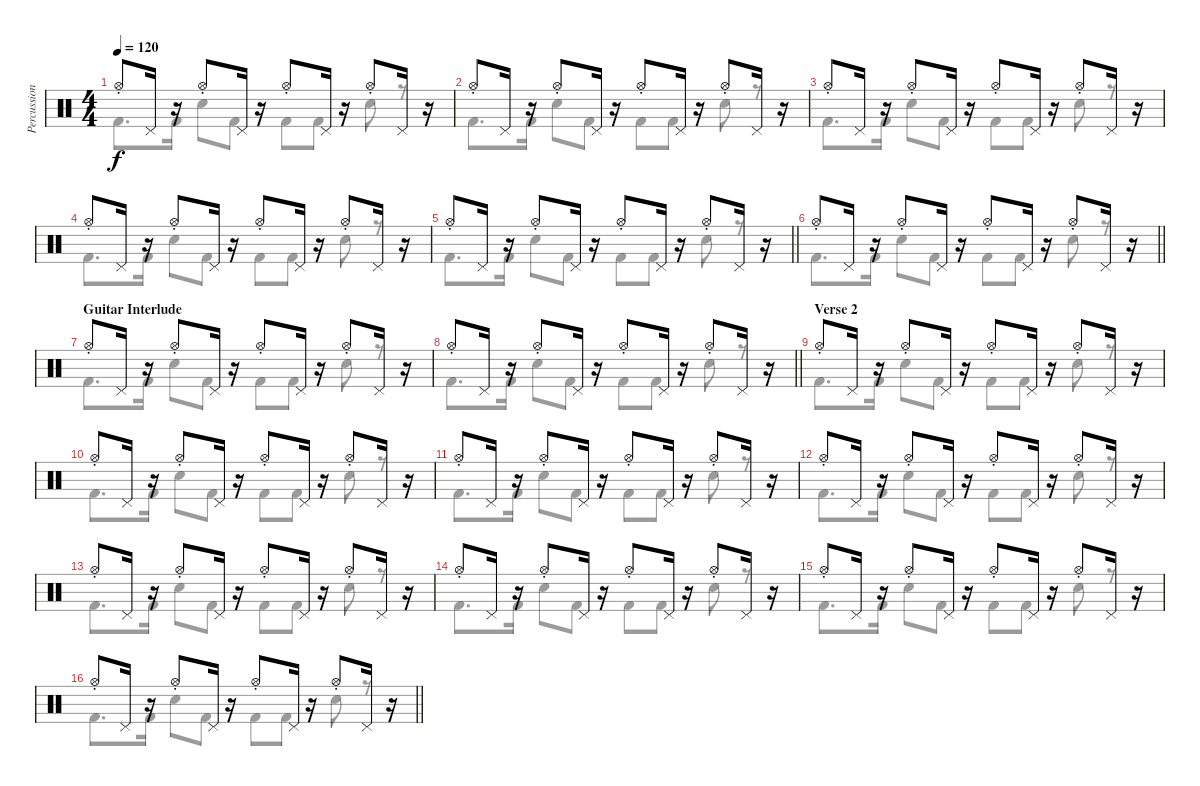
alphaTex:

\track ("Percussion" "Percussion") {instrument percussion}
\staff {score}
\articulation defaults
\voice
\ts (4 4)
\tempo 120
\clef neutral
\ks c "Hi-Hat (open)"{st}.8{dy f} "Pedal Hi-Hat (hit)".16
r.16 "Hi-Hat (open)"{st}.8 "Pedal Hi-Hat (hit)".16 r.16 "Hi-Hat (open)"{st}.8 "Pedal Hi-Hat (hit)".16 r.16 "Hi-Hat (open)"{st}.8 "Pedal Hi-Hat (hit)".16 r.16 |
"Hi-Hat (open)"{st}.8 "Pedal Hi-Hat (hit)".16 r.16 "Hi-Hat (open)"{st}.8 "Pedal Hi-Hat (hit)".16 r.16 "Hi-Hat (open)"{st}.8 "Pedal Hi-Hat (hit)".16 r.16 "Hi-Hat (open)"{st}.8 "Pedal Hi-Hat (hit)".16 r.16 |
"Hi-Hat (open)"{st}.8 "Pedal Hi-Hat (hit)".16 r.16 "Hi-Hat (open)"{st}.8 "Pedal Hi-Hat (hit)".16 r.16 "Hi-Hat (open)"{st}.8 "Pedal Hi-Hat (hit)".16 r.16 "Hi-Hat (open)"{st}.8 "Pedal Hi-Hat (hit)".16 r.16 |
"Hi-Hat (open)"{st}.8 "Pedal Hi-Hat (hit)".16 r.16 "Hi-Hat (open)"{st}.8 "Pedal Hi-Hat (hit)".16 r.16 "Hi-Hat (open)"{st}.8 "Pedal Hi-Hat (hit)".16 r.16 "Hi-Hat (open)"{st}.8 "Pedal Hi-Hat (hit)".16 r.16 |
\barLineRight lightlight "Hi-Hat (open)"{st}.8 "Pedal Hi-Hat (hit)".16
r.16 "Hi-Hat (open)"{st}.8 "Pedal Hi-Hat (hit)".16 r.16 "Hi-Hat (open)"{st}.8 "Pedal Hi-Hat (hit)".16 r.16 "Hi-Hat (open)"{st}.8 "Pedal Hi-Hat (hit)".16 r.16 |
\barLineRight lightlight "Hi-Hat (open)"{st}.8 "Pedal Hi-Hat (hit)".16
r.16 "Hi-Hat (open)"{st}.8 "Pedal Hi-Hat (hit)".16 r.16 "Hi-Hat (open)"{st}.8 "Pedal Hi-Hat (hit)".16 r.16 "Hi-Hat (open)"{st}.8 "Pedal Hi-Hat (hit)".16 r.16 |
\section ("" "Guitar Interlude")
"Hi-Hat (open)"{st}.8 "Pedal Hi-Hat (hit)".16 r.16 "Hi-Hat (open)"{st}.8 "Pedal Hi-Hat (hit)".16 r.16 "Hi-Hat (open)"{st}.8 "Pedal Hi-Hat (hit)".16 r.16 "Hi-Hat (open)"{st}.8 "Pedal Hi-Hat (hit)".16 r.16 |
\barLineRight lightlight "Hi-Hat (open)"{st}.8 "Pedal Hi-Hat (hit)".16
r.16 "Hi-Hat (open)"{st}.8 "Pedal Hi-Hat (hit)".16 r.16 "Hi-Hat (open)"{st}.8 "Pedal Hi-Hat (hit)".16 r.16 "Hi-Hat (open)"{st}.8 "Pedal Hi-Hat (hit)".16 r.16 |
\section ("" "Verse 2")
"Hi-Hat (open)"{st}.8 "Pedal Hi-Hat (hit)".16 r.16 "Hi-Hat (open)"{st}.8 "Pedal Hi-Hat (hit)".16 r.16 "Hi-Hat (open)"{st}.8 "Pedal Hi-Hat (hit)".16 r.16 "Hi-Hat (open)"{st}.8 "Pedal Hi-Hat (hit)".16 r.16 |
"Hi-Hat (open)"{st}.8 "Pedal Hi-Hat (hit)".16 r.16 "Hi-Hat (open)"{st}.8 "Pedal Hi-Hat (hit)".16 r.16 "Hi-Hat (open)"{st}.8 "Pedal Hi-Hat (hit)".16 r.16 "Hi-Hat (open)"{st}.8 "Pedal Hi-Hat (hit)".16 r.16 |
"Hi-Hat (open)"{st}.8 "Pedal Hi-Hat (hit)".16 r.16 "Hi-Hat (open)"{st}.8 "Pedal Hi-Hat (hit)".16 r.16 "Hi-Hat (open)"{st}.8 "Pedal Hi-Hat (hit)".16 r.16 "Hi-Hat (open)"{st}.8 "Pedal Hi-Hat (hit)".16 r.16 |
"Hi-Hat (open)"{st}.8 "Pedal Hi-Hat (hit)".16 r.16 "Hi-Hat (open)"{st}.8 "Pedal Hi-Hat (hit)".16 r.16 "Hi-Hat (open)"{st}.8 "Pedal Hi-Hat (hit)".16 r.16 "Hi-Hat (open)"{st}.8 "Pedal Hi-Hat (hit)".16 r.16 |
"Hi-Hat (open)"{st}.8 "Pedal Hi-Hat (hit)".16 r.16 "Hi-Hat (open)"{st}.8 "Pedal Hi-Hat (hit)".16 r.16 "Hi-Hat (open)"{st}.8 "Pedal Hi-Hat (hit)".16 r.16 "Hi-Hat (open)"{st}.8 "Pedal Hi-Hat (hit)".16 r.16 |
"Hi-Hat (open)"{st}.8 "Pedal Hi-Hat (hit)".16 r.16 "Hi-Hat (open)"{st}.8 "Pedal Hi-Hat (hit)".16 r.16 "Hi-Hat (open)"{st}.8 "Pedal Hi-Hat (hit)".16 r.16 "Hi-Hat (open)"{st}.8 "Pedal Hi-Hat (hit)".16 r.16 |
"Hi-Hat (open)"{st}.8 "Pedal Hi-Hat (hit)".16 r.16 "Hi-Hat (open)"{st}.8 "Pedal Hi-Hat (hit)".16 r.16 "Hi-Hat (open)"{st}.8 "Pedal Hi-Hat (hit)".16 r.16 "Hi-Hat (open)"{st}.8 "Pedal Hi-Hat (hit)".16 r.16 |
\barLineRight lightlight "Hi-Hat (open)"{st}.8 "Pedal Hi-Hat (hit)".16
r.16 "Hi-Hat (open)"{st}.8 "Pedal Hi-Hat (hit)".16 r.16 "Hi-Hat (open)"{st}.8 "Pedal Hi-Hat (hit)".16 r.16 "Hi-Hat (open)"{st}.8 "Pedal Hi-Hat (hit)".16 r.16
\voice
\clef neutral
\ottava regular
\simile none
\ks c "Kick (hit) 2".8{d dy f} "Kick (hit) 2".16 "Electric Snare (hit)".8 "Kick (hit) 2".8 "Kick (hit) 2".8 "Kick (hit) 2".8 "Electric Snare (hit)".8
r.8 |
"Kick (hit) 2".8{d} "Kick (hit) 2".16 "Electric Snare (hit)".8 "Kick (hit) 2".8 "Kick (hit) 2".8 "Kick (hit) 2".8 "Electric Snare (hit)".8 r.8 |
"Kick (hit) 2".8{d} "Kick (hit) 2".16 "Electric Snare (hit)".8 "Kick (hit) 2".8 "Kick (hit) 2".8 "Kick (hit) 2".8 "Electric Snare (hit)".8 r.8 |
"Kick (hit) 2".8{d} "Kick (hit) 2".16 "Electric Snare (hit)".8 "Kick (hit) 2".8 "Kick (hit) 2".8 "Kick (hit) 2".8 "Electric Snare (hit)".8 r.8 |
\barLineRight lightlight "Kick (hit) 2".8{d} "Kick (hit) 2".16 "Electric Snare (hit)".8 "Kick (hit) 2".8 "Kick (hit) 2".8 "Kick (hit) 2".8 "Electric Snare (hit)".8
r.8 |
\barLineRight lightlight "Kick (hit) 2".8{d} "Kick (hit) 2".16 "Electric Snare (hit)".8 "Kick (hit) 2".8 "Kick (hit) 2".8 "Kick (hit) 2".8 "Electric Snare (hit)".8
r.8 |
"Kick (hit) 2".8{d} "Kick (hit) 2".16 "Electric Snare (hit)".8 "Kick (hit) 2".8 "Kick (hit) 2".8 "Kick (hit) 2".8 "Electric Snare (hit)".8 r.8 |
\barLineRight lightlight "Kick (hit) 2".8{d} "Kick (hit) 2".16 "Electric Snare (hit)".8 "Kick (hit) 2".8 "Kick (hit) 2".8 "Kick (hit) 2".8 "Electric Snare (hit)".8
r.8 |
"Kick (hit) 2".8{d} "Kick (hit) 2".16 "Electric Snare (hit)".8 "Kick (hit) 2".8 "Kick (hit) 2".8 "Kick (hit) 2".8 "Electric Snare (hit)".8 r.8 |
"Kick (hit) 2".8{d} "Kick (hit) 2".16 "Electric Snare (hit)".8 "Kick (hit) 2".8 "Kick (hit) 2".8 "Kick (hit) 2".8 "Electric Snare (hit)".8 r.8 |
"Kick (hit) 2".8{d} "Kick (hit) 2".16 "Electric Snare (hit)".8 "Kick (hit) 2".8 "Kick (hit) 2".8 "Kick (hit) 2".8 "Electric Snare (hit)".8 r.8 |
"Kick (hit) 2".8{d} "Kick (hit) 2".16 "Electric Snare (hit)".8 "Kick (hit) 2".8 "Kick (hit) 2".8 "Kick (hit) 2".8 "Electric Snare (hit)".8 r.8 |
"Kick (hit) 2".8{d} "Kick (hit) 2".16 "Electric Snare (hit)".8 "Kick (hit) 2".8 "Kick (hit) 2".8 "Kick (hit) 2".8 "Electric Snare (hit)".8 r.8 |
"Kick (hit) 2".8{d} "Kick (hit) 2".16 "Electric Snare (hit)".8 "Kick (hit) 2".8 "Kick (hit) 2".8 "Kick (hit) 2".8 "Electric Snare (hit)".8 r.8 |
"Kick (hit) 2".8{d} "Kick (hit) 2".16 "Electric Snare (hit)".8 "Kick (hit) 2".8 "Kick (hit) 2".8 "Kick (hit) 2".8 "Electric Snare (hit)".8 r.8 |
\barLineRight lightlight "Kick (hit) 2".8{d} "Kick (hit) 2".16 "Electric Snare (hit)".8 "Kick (hit) 2".8 "Kick (hit) 2".8 "Kick (hit) 2".8 "Electric Snare (hit)".8
r.8
